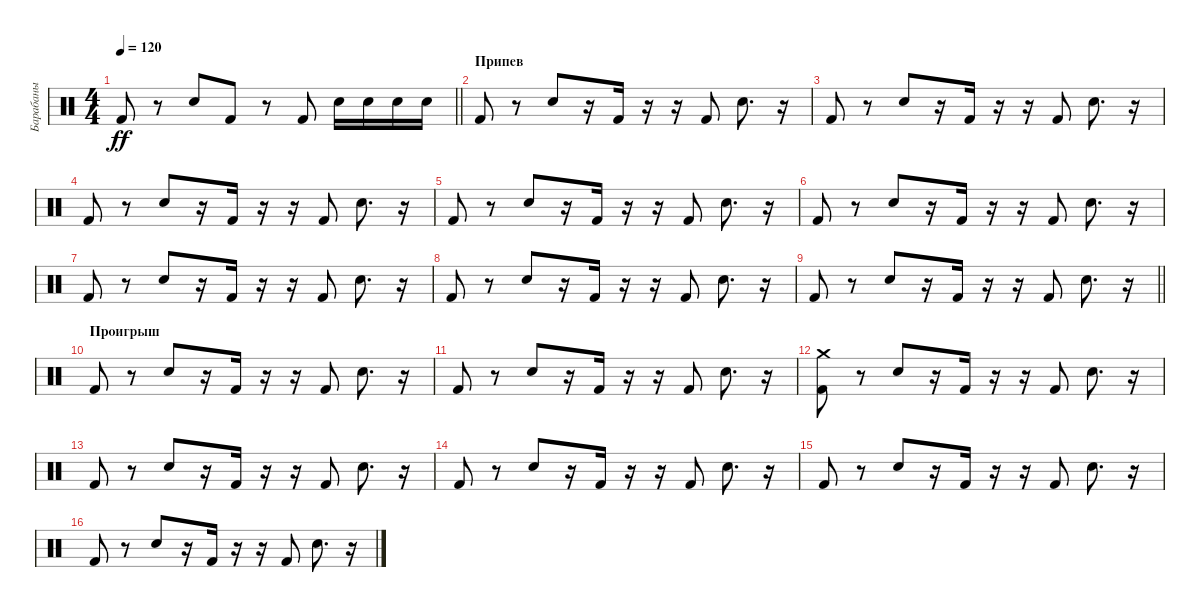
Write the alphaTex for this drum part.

\track ("Барабаны" "Барабаны") {instrument percussion}
\staff {score}
\articulation defaults
\ts (4 4)
\tempo 120
\clef neutral
\barLineRight lightlight
\ks c "Kick (hit) 2".8{dy ff}
r.8 "Electric Snare (hit)".8 "Kick (hit) 2".8 r.8 "Kick (hit) 2".8 "Electric Snare (hit)".16 "Electric Snare (hit)".16 "Electric Snare (hit)".16 "Electric Snare (hit)".16 |
\section ("" "Припев")
"Kick (hit) 2".8 r.8 "Snare (hit) 2".8 r.16 "Kick (hit) 2".16 r.16 r.16 "Kick (hit) 2".8 "Snare (hit) 2".8{d} r.16 |
"Kick (hit) 2".8 r.8 "Snare (hit) 2".8 r.16 "Kick (hit) 2".16 r.16 r.16 "Kick (hit) 2".8 "Snare (hit) 2".8{d} r.16 |
"Kick (hit) 2".8 r.8 "Snare (hit) 2".8 r.16 "Kick (hit) 2".16 r.16 r.16 "Kick (hit) 2".8 "Snare (hit) 2".8{d} r.16 |
"Kick (hit) 2".8 r.8 "Snare (hit) 2".8 r.16 "Kick (hit) 2".16 r.16 r.16 "Kick (hit) 2".8 "Snare (hit) 2".8{d} r.16 |
"Kick (hit) 2".8 r.8 "Snare (hit) 2".8 r.16 "Kick (hit) 2".16 r.16 r.16 "Kick (hit) 2".8 "Snare (hit) 2".8{d} r.16 |
"Kick (hit) 2".8 r.8 "Snare (hit) 2".8 r.16 "Kick (hit) 2".16 r.16 r.16 "Kick (hit) 2".8 "Snare (hit) 2".8{d} r.16 |
"Kick (hit) 2".8 r.8 "Snare (hit) 2".8 r.16 "Kick (hit) 2".16 r.16 r.16 "Kick (hit) 2".8 "Snare (hit) 2".8{d} r.16 |
\barLineRight lightlight "Kick (hit) 2".8
r.8 "Snare (hit) 2".8 r.16 "Kick (hit) 2".16 r.16 r.16 "Kick (hit) 2".8 "Snare (hit) 2".8{d} r.16 |
\section ("" "Проигрыш")
"Kick (hit) 2".8 r.8 "Snare (hit) 2".8 r.16 "Kick (hit) 2".16 r.16 r.16 "Kick (hit) 2".8 "Snare (hit) 2".8{d} r.16 |
"Kick (hit) 2".8 r.8 "Snare (hit) 2".8 r.16 "Kick (hit) 2".16 r.16 r.16 "Kick (hit) 2".8 "Snare (hit) 2".8{d} r.16 |
("Crash medium (hit)" "Kick (hit) 2").8 r.8 "Snare (hit) 2".8 r.16 "Kick (hit) 2".16 r.16 r.16 "Kick (hit) 2".8 "Snare (hit) 2".8{d} r.16 |
"Kick (hit) 2".8 r.8 "Snare (hit) 2".8 r.16 "Kick (hit) 2".16 r.16 r.16 "Kick (hit) 2".8 "Snare (hit) 2".8{d} r.16 |
"Kick (hit) 2".8 r.8 "Snare (hit) 2".8 r.16 "Kick (hit) 2".16 r.16 r.16 "Kick (hit) 2".8 "Snare (hit) 2".8{d} r.16 |
"Kick (hit) 2".8 r.8 "Snare (hit) 2".8 r.16 "Kick (hit) 2".16 r.16 r.16 "Kick (hit) 2".8 "Snare (hit) 2".8{d} r.16 |
"Kick (hit) 2".8 r.8 "Snare (hit) 2".8 r.16 "Kick (hit) 2".16 r.16 r.16 "Kick (hit) 2".8 "Snare (hit) 2".8{d} r.16
